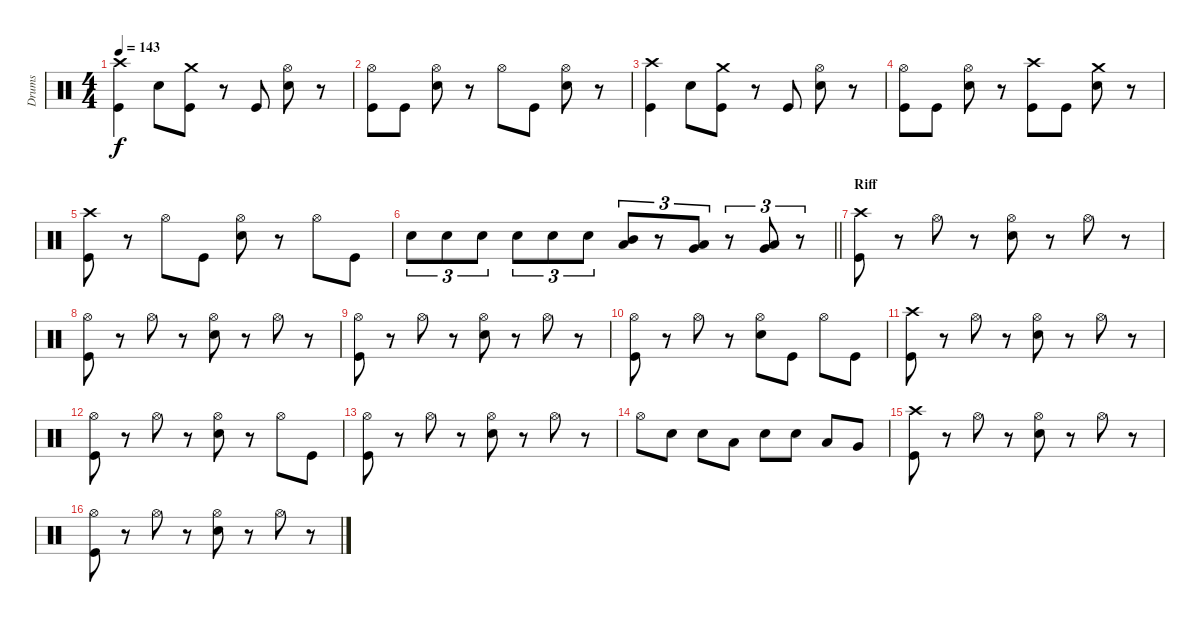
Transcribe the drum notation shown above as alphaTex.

\track ("Drums" "Drums") {instrument percussion}
\staff {score}
\articulation defaults
\ts (4 4)
\tempo 143
\clef neutral
\ks c
("Crash high (hit)" "Kick (hit)").4{dy f} "Snare (hit) 2".8 ("Crash medium (hit)" "Kick (hit)").8 r.8 "Kick (hit)".8 ("Hi-Hat (open)" "Snare (hit) 2").8 r.8 |
("Hi-Hat (open)" "Kick (hit)").8 "Kick (hit)".8 ("Hi-Hat (open)" "Snare (hit) 2").8 r.8 "Hi-Hat (open)".8 "Kick (hit)".8 ("Hi-Hat (open)" "Snare (hit) 2").8 r.8 |
("Crash high (hit)" "Kick (hit)").4 "Snare (hit) 2".8 ("Crash medium (hit)" "Kick (hit)").8 r.8 "Kick (hit)".8 ("Hi-Hat (open)" "Snare (hit) 2").8 r.8 |
("Hi-Hat (open)" "Kick (hit)").8 "Kick (hit)".8 ("Hi-Hat (open)" "Snare (hit) 2").8 r.8 ("Crash high (hit)" "Kick (hit)").8 "Kick (hit)".8 ("Crash medium (hit)" "Snare (hit) 2").8 r.8 |
("Crash high (hit)" "Kick (hit)").8 r.8 "Hi-Hat (open)".8 "Kick (hit)".8 ("Hi-Hat (open)" "Snare (hit) 2").8 r.8 "Hi-Hat (open)".8 "Kick (hit)".8 |
\barLineRight lightlight "Snare (hit) 2".8{tu (3 2)} "Snare (hit) 2".8{tu (3 2)} "Snare (hit) 2".8{tu (3 2)} "Snare (hit) 2".8{tu (3 2)} "Snare (hit) 2".8{tu (3 2)} "Snare (hit) 2".8{tu (3 2)}
("Low Tom (hit)" "Mid Tom (hit)").8{tu (3 2)} r.8{tu (3 2)} ("Very Low Tom (hit)" "Low Tom (hit)").8{tu (3 2)} r.8{tu (3 2)} ("Low Floor Tom (hit)" "Very Low Tom (hit)").8{tu (3 2)} r.8{tu (3 2)} |
\section ("" "Riff")
("Crash high (hit)" "Kick (hit)").8 r.8 "Hi-Hat (open)".8 r.8 ("Hi-Hat (open)" "Snare (hit) 2").8 r.8 "Hi-Hat (open)".8 r.8 |
("Hi-Hat (open)" "Kick (hit)").8 r.8 "Hi-Hat (open)".8 r.8 ("Hi-Hat (open)" "Snare (hit) 2").8 r.8 "Hi-Hat (open)".8 r.8 |
("Hi-Hat (open)" "Kick (hit)").8 r.8 "Hi-Hat (open)".8 r.8 ("Hi-Hat (open)" "Snare (hit) 2").8 r.8 "Hi-Hat (open)".8 r.8 |
("Hi-Hat (open)" "Kick (hit)").8 r.8 "Hi-Hat (open)".8 r.8 ("Hi-Hat (open)" "Snare (hit) 2").8 "Kick (hit)".8 "Hi-Hat (open)".8 "Kick (hit)".8 |
("Crash high (hit)" "Kick (hit)").8 r.8 "Hi-Hat (open)".8 r.8 ("Hi-Hat (open)" "Snare (hit) 2").8 r.8 "Hi-Hat (open)".8 r.8 |
("Hi-Hat (open)" "Kick (hit)").8 r.8 "Hi-Hat (open)".8 r.8 ("Hi-Hat (open)" "Snare (hit) 2").8 r.8 "Hi-Hat (open)".8 "Kick (hit)".8 |
("Hi-Hat (open)" "Kick (hit)").8 r.8 "Hi-Hat (open)".8 r.8 ("Hi-Hat (open)" "Snare (hit) 2").8 r.8 "Hi-Hat (open)".8 r.8 |
"Hi-Hat (open)".8 "Snare (hit) 2".8 "Snare (hit) 2".8 "Low Tom (hit)".8 "Snare (hit) 2".8 "Snare (hit) 2".8 "Low Tom (hit)".8 "Very Low Tom (hit)".8 |
("Crash high (hit)" "Kick (hit)").8 r.8 "Hi-Hat (open)".8 r.8 ("Hi-Hat (open)" "Snare (hit) 2").8 r.8 "Hi-Hat (open)".8 r.8 |
("Hi-Hat (open)" "Kick (hit)").8 r.8 "Hi-Hat (open)".8 r.8 ("Hi-Hat (open)" "Snare (hit) 2").8 r.8 "Hi-Hat (open)".8 r.8
